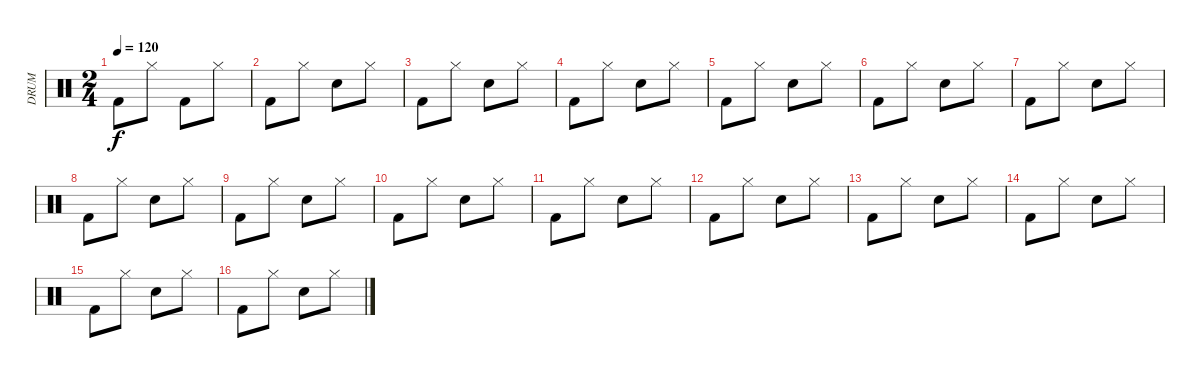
\track ("DRUM" "DRUM") {instrument percussion}
\staff {score}
\articulation defaults
\ts (2 4)
\tempo 120
\clef neutral
\ks c "Kick (hit) 2".8{dy f} "Hi-Hat (closed)".8 "Kick (hit) 2".8 "Hi-Hat (closed)".8
|
"Kick (hit) 2".8 "Hi-Hat (closed)".8 "Electric Snare (hit)".8 "Hi-Hat (closed)".8 |
"Kick (hit) 2".8 "Hi-Hat (closed)".8 "Electric Snare (hit)".8 "Hi-Hat (closed)".8 |
"Kick (hit) 2".8 "Hi-Hat (closed)".8 "Electric Snare (hit)".8 "Hi-Hat (closed)".8 |
"Kick (hit) 2".8 "Hi-Hat (closed)".8 "Electric Snare (hit)".8 "Hi-Hat (closed)".8 |
"Kick (hit) 2".8 "Hi-Hat (closed)".8 "Electric Snare (hit)".8 "Hi-Hat (closed)".8 |
"Kick (hit) 2".8 "Hi-Hat (closed)".8 "Electric Snare (hit)".8 "Hi-Hat (closed)".8 |
"Kick (hit) 2".8 "Hi-Hat (closed)".8 "Electric Snare (hit)".8 "Hi-Hat (closed)".8 |
"Kick (hit) 2".8 "Hi-Hat (closed)".8 "Electric Snare (hit)".8 "Hi-Hat (closed)".8 |
"Kick (hit) 2".8 "Hi-Hat (closed)".8 "Electric Snare (hit)".8 "Hi-Hat (closed)".8 |
"Kick (hit) 2".8 "Hi-Hat (closed)".8 "Electric Snare (hit)".8 "Hi-Hat (closed)".8 |
"Kick (hit) 2".8 "Hi-Hat (closed)".8 "Electric Snare (hit)".8 "Hi-Hat (closed)".8 |
"Kick (hit) 2".8 "Hi-Hat (closed)".8 "Electric Snare (hit)".8 "Hi-Hat (closed)".8 |
"Kick (hit) 2".8 "Hi-Hat (closed)".8 "Electric Snare (hit)".8 "Hi-Hat (closed)".8 |
"Kick (hit) 2".8 "Hi-Hat (closed)".8 "Electric Snare (hit)".8 "Hi-Hat (closed)".8 |
"Kick (hit) 2".8 "Hi-Hat (closed)".8 "Electric Snare (hit)".8 "Hi-Hat (closed)".8
